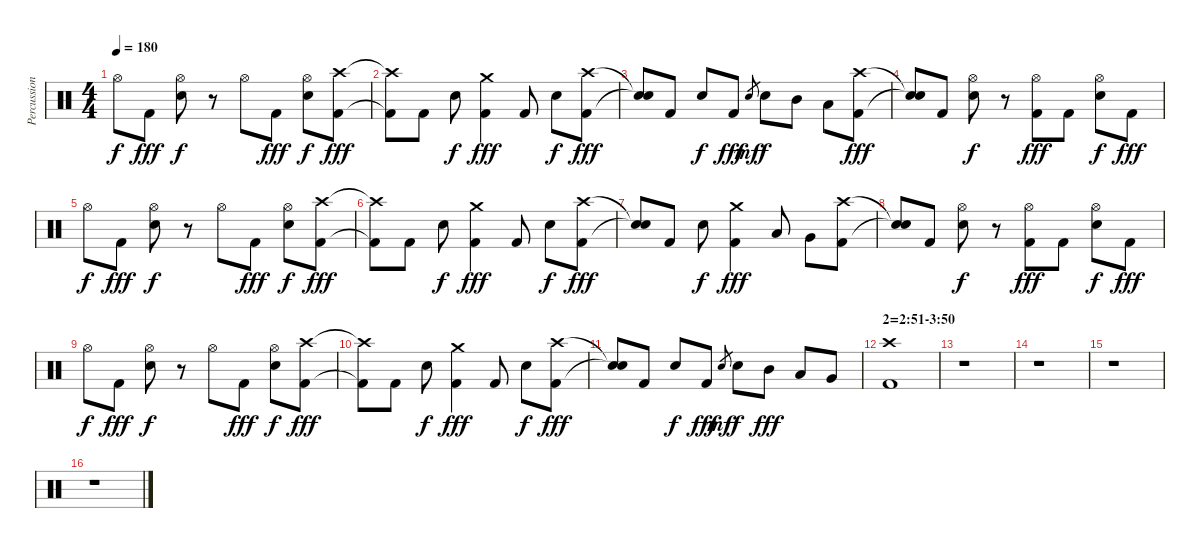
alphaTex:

\track ("Percussion" "Percussion") {instrument percussion}
\staff {score}
\articulation defaults
\ts (4 4)
\tempo 180
\clef neutral
\ks c "Hi-Hat (open)".8{dy f} "Kick (hit) 2".8{dy fff}
("Hi-Hat (open)" "Snare (hit) 2").8{dy f} r.8 "Hi-Hat (open)".8 "Kick (hit) 2".8{dy fff} ("Hi-Hat (open)" "Snare (hit) 2").8{dy f} ("Crash high (hit)" "Kick (hit) 2").8{dy fff} |
("Crash high (hit)"{t} "Kick (hit) 2"{t}).8 "Kick (hit) 2".8 "Snare (hit) 2".8{dy f} ("Crash medium (hit)" "Kick (hit) 2").4{dy fff} "Kick (hit) 2".8 "Snare (hit) 2".8{dy f} ("Crash high (hit)" "Kick (hit) 2").8{dy fff} |
("Snare (hit)"{t} "Snare (hit)"{t}).8 "Kick (hit) 2".8 "Snare (hit) 2".8{dy f} "Kick (hit) 2".8{dy fff} "Snare (hit) 2".8{gr dy mf} "Snare (hit) 2".8{dy f} "Mid Tom (hit)".8 "Low Tom (hit)".8 ("Crash high (hit)" "Kick (hit) 2").8{dy fff} |
("Snare (hit)"{t} "Snare (hit)"{t}).8 "Kick (hit) 2".8 ("Hi-Hat (open)" "Snare (hit) 2").8{dy f} r.8 ("Hi-Hat (open)" "Kick (hit) 2").8{dy fff} "Kick (hit) 2".8 ("Hi-Hat (open)" "Snare (hit) 2").8{dy f} "Kick (hit) 2".8{dy fff} |
"Hi-Hat (open)".8{dy f} "Kick (hit) 2".8{dy fff} ("Hi-Hat (open)" "Snare (hit) 2").8{dy f} r.8 "Hi-Hat (open)".8 "Kick (hit) 2".8{dy fff} ("Hi-Hat (open)" "Snare (hit) 2").8{dy f} ("Crash high (hit)" "Kick (hit) 2").8{dy fff} |
("Crash high (hit)"{t} "Kick (hit) 2"{t}).8 "Kick (hit) 2".8 "Snare (hit) 2".8{dy f} ("Crash medium (hit)" "Kick (hit) 2").4{dy fff} "Kick (hit) 2".8 "Snare (hit) 2".8{dy f} ("Crash high (hit)" "Kick (hit) 2").8{dy fff} |
("Snare (hit)"{t} "Snare (hit)"{t}).8 "Kick (hit) 2".8 "Snare (hit) 2".8{dy f} ("Crash medium (hit)" "Kick (hit) 2").4{dy fff} "Low Tom (hit)".8 "Very Low Tom (hit)".8 ("Crash high (hit)" "Kick (hit) 2").8 |
("Snare (hit)"{t} "Snare (hit)"{t}).8 "Kick (hit) 2".8 ("Hi-Hat (open)" "Snare (hit) 2").8{dy f} r.8 ("Hi-Hat (open)" "Kick (hit) 2").8{dy fff} "Kick (hit) 2".8 ("Hi-Hat (open)" "Snare (hit) 2").8{dy f} "Kick (hit) 2".8{dy fff} |
"Hi-Hat (open)".8{dy f} "Kick (hit) 2".8{dy fff} ("Hi-Hat (open)" "Snare (hit) 2").8{dy f} r.8 "Hi-Hat (open)".8 "Kick (hit) 2".8{dy fff} ("Hi-Hat (open)" "Snare (hit) 2").8{dy f} ("Crash high (hit)" "Kick (hit) 2").8{dy fff} |
("Crash high (hit)"{t} "Kick (hit) 2"{t}).8 "Kick (hit) 2".8 "Snare (hit) 2".8{dy f} ("Crash medium (hit)" "Kick (hit) 2").4{dy fff} "Kick (hit) 2".8 "Snare (hit) 2".8{dy f} ("Crash high (hit)" "Kick (hit) 2").8{dy fff} |
("Snare (hit)"{t} "Snare (hit)"{t}).8 "Kick (hit) 2".8 "Snare (hit) 2".8{dy f} "Kick (hit) 2".8{dy fff} "Snare (hit) 2".8{gr dy mf} "Snare (hit) 2".8{dy f} "Mid Tom (hit)".8{dy fff} "Low Tom (hit)".8 "Very Low Tom (hit)".8 |
\section ("" "2=2:51-3:50")
("Crash high (hit)" "Kick (hit) 2").1 |
r.1 |
r.1 |
r.1 |
r.1
